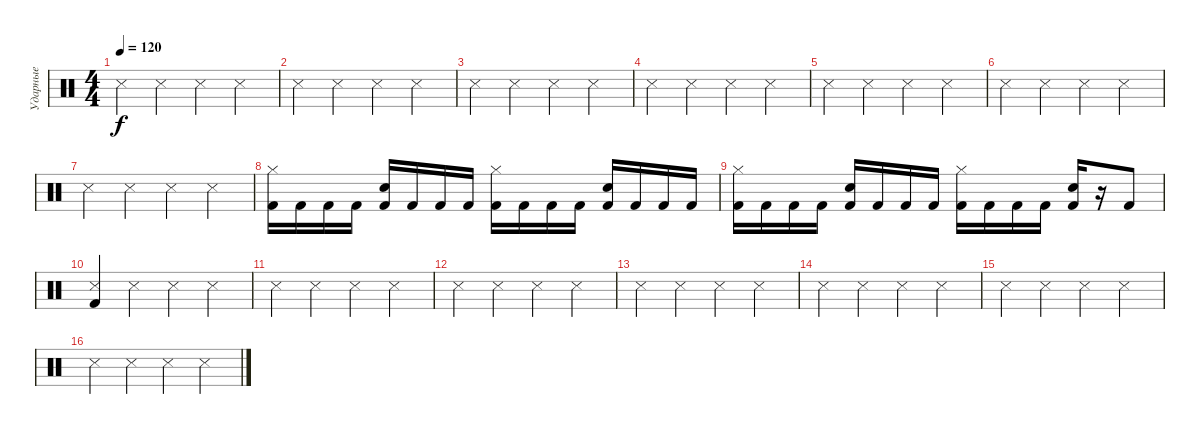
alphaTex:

\track ("Ударные" "Ударные") {mute instrument percussion}
\staff {score}
\articulation defaults
\ts (4 4)
\tempo 120
\clef neutral
\ks c "Metronome (hit)".4{dy f} "Metronome (hit)".4 "Metronome (hit)".4 "Metronome (hit)".4
|
"Metronome (hit)".4 "Metronome (hit)".4 "Metronome (hit)".4 "Metronome (hit)".4 |
"Metronome (hit)".4 "Metronome (hit)".4 "Metronome (hit)".4 "Metronome (hit)".4 |
"Metronome (hit)".4 "Metronome (hit)".4 "Metronome (hit)".4 "Metronome (hit)".4 |
"Metronome (hit)".4 "Metronome (hit)".4 "Metronome (hit)".4 "Metronome (hit)".4 |
"Metronome (hit)".4 "Metronome (hit)".4 "Metronome (hit)".4 "Metronome (hit)".4 |
"Metronome (hit)".4 "Metronome (hit)".4 "Metronome (hit)".4 "Metronome (hit)".4 |
("Hi-Hat (closed)" "Kick (hit) 2").16 "Kick (hit) 2".16 "Kick (hit) 2".16 "Kick (hit) 2".16 ("Electric Snare (hit)" "Kick (hit) 2").16 "Kick (hit) 2".16 "Kick (hit) 2".16 "Kick (hit) 2".16 ("Hi-Hat (closed)" "Kick (hit) 2").16 "Kick (hit) 2".16 "Kick (hit) 2".16 "Kick (hit) 2".16 ("Electric Snare (hit)" "Kick (hit) 2").16 "Kick (hit) 2".16 "Kick (hit) 2".16 "Kick (hit) 2".16 |
("Hi-Hat (closed)" "Kick (hit) 2").16 "Kick (hit) 2".16 "Kick (hit) 2".16 "Kick (hit) 2".16 ("Electric Snare (hit)" "Kick (hit) 2").16 "Kick (hit) 2".16 "Kick (hit) 2".16 "Kick (hit) 2".16 ("Hi-Hat (closed)" "Kick (hit) 2").16 "Kick (hit) 2".16 "Kick (hit) 2".16 "Kick (hit) 2".16 ("Electric Snare (hit)" "Kick (hit) 2").16 r.16 "Kick (hit) 2".8 |
("Metronome (hit)" "Kick (hit) 2").4 "Metronome (hit)".4 "Metronome (hit)".4 "Metronome (hit)".4 |
"Metronome (hit)".4 "Metronome (hit)".4 "Metronome (hit)".4 "Metronome (hit)".4 |
"Metronome (hit)".4 "Metronome (hit)".4 "Metronome (hit)".4 "Metronome (hit)".4 |
"Metronome (hit)".4 "Metronome (hit)".4 "Metronome (hit)".4 "Metronome (hit)".4 |
"Metronome (hit)".4 "Metronome (hit)".4 "Metronome (hit)".4 "Metronome (hit)".4 |
"Metronome (hit)".4 "Metronome (hit)".4 "Metronome (hit)".4 "Metronome (hit)".4 |
"Metronome (hit)".4 "Metronome (hit)".4 "Metronome (hit)".4 "Metronome (hit)".4
